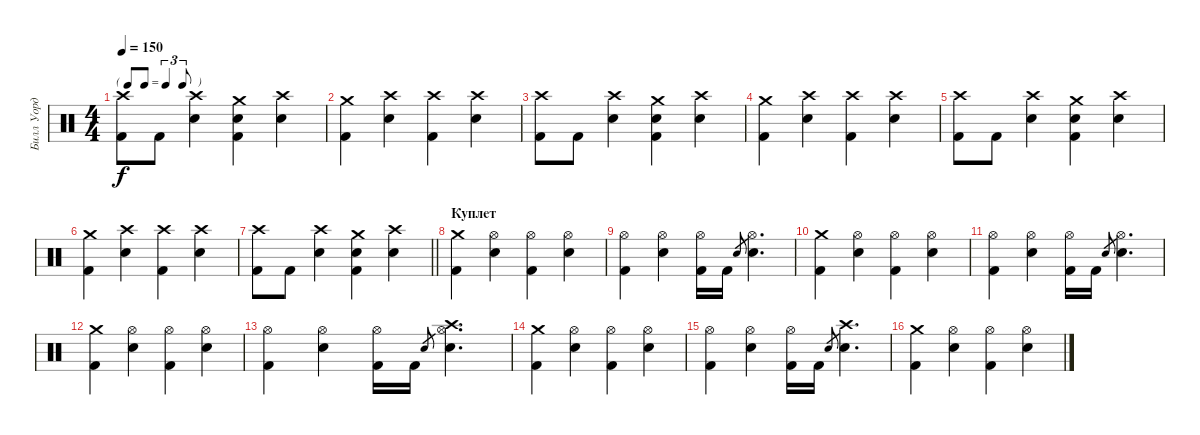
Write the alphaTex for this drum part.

\track ("Билл Уорд" "Билл Уорд") {instrument percussion}
\staff {score}
\articulation defaults
\ts (4 4)
\tf triplet8th
\tempo 150
\clef neutral
\ks c
("Kick (hit) 2" "Crash high (hit)").8{dy f} "Kick (hit) 2".8 ("Snare (hit) 2" "Crash high (hit)").4 ("Snare (hit) 2" "Kick (hit) 2" "Crash medium (hit)").4 ("Snare (hit) 2" "Crash high (hit)").4 |
("Kick (hit) 2" "Crash medium (hit)").4 ("Snare (hit) 2" "Crash high (hit)").4 ("Kick (hit) 2" "Crash high (hit)").4 ("Snare (hit) 2" "Crash high (hit)").4 |
("Kick (hit) 2" "Crash high (hit)").8 "Kick (hit) 2".8 ("Snare (hit) 2" "Crash high (hit)").4 ("Snare (hit) 2" "Kick (hit) 2" "Crash medium (hit)").4 ("Snare (hit) 2" "Crash high (hit)").4 |
("Kick (hit) 2" "Crash medium (hit)").4 ("Snare (hit) 2" "Crash high (hit)").4 ("Kick (hit) 2" "Crash high (hit)").4 ("Snare (hit) 2" "Crash high (hit)").4 |
("Kick (hit) 2" "Crash high (hit)").8 "Kick (hit) 2".8 ("Snare (hit) 2" "Crash high (hit)").4 ("Snare (hit) 2" "Kick (hit) 2" "Crash medium (hit)").4 ("Snare (hit) 2" "Crash high (hit)").4 |
("Kick (hit) 2" "Crash medium (hit)").4 ("Snare (hit) 2" "Crash high (hit)").4 ("Kick (hit) 2" "Crash high (hit)").4 ("Snare (hit) 2" "Crash high (hit)").4 |
\barLineRight lightlight
("Kick (hit) 2" "Crash high (hit)").8 "Kick (hit) 2".8 ("Snare (hit) 2" "Crash high (hit)").4 ("Snare (hit) 2" "Kick (hit) 2" "Crash medium (hit)").4 ("Snare (hit) 2" "Crash high (hit)").4 |
\section ("" "Куплет")
("Crash medium (hit)" "Kick (hit) 2").4 ("Hi-Hat (open)" "Snare (hit) 2").4 ("Hi-Hat (open)" "Kick (hit) 2").4 ("Hi-Hat (open)" "Snare (hit) 2").4 |
("Kick (hit) 2" "Hi-Hat (open)").4 ("Snare (hit) 2" "Hi-Hat (open)").4 ("Kick (hit) 2" "Hi-Hat (open)").16 "Kick (hit) 2".16 "Snare (hit) 2".8{gr} ("Snare (hit) 2" "Hi-Hat (open)").4{d} |
("Crash medium (hit)" "Kick (hit) 2").4 ("Hi-Hat (open)" "Snare (hit) 2").4 ("Hi-Hat (open)" "Kick (hit) 2").4 ("Hi-Hat (open)" "Snare (hit) 2").4 |
("Kick (hit) 2" "Hi-Hat (open)").4 ("Snare (hit) 2" "Hi-Hat (open)").4 ("Kick (hit) 2" "Hi-Hat (open)").16 "Kick (hit) 2".16 "Snare (hit) 2".8{gr} ("Snare (hit) 2" "Hi-Hat (open)").4{d} |
("Crash medium (hit)" "Kick (hit) 2").4 ("Hi-Hat (open)" "Snare (hit) 2").4 ("Hi-Hat (open)" "Kick (hit) 2").4 ("Hi-Hat (open)" "Snare (hit) 2").4 |
("Kick (hit) 2" "Hi-Hat (open)").4 ("Snare (hit) 2" "Hi-Hat (open)").4 ("Kick (hit) 2" "Hi-Hat (open)").16 "Kick (hit) 2".16 "Snare (hit) 2".8{gr} ("Snare (hit) 2" "Hi-Hat (open)" "Crash high (hit)").4{d} |
("Crash medium (hit)" "Kick (hit) 2").4 ("Hi-Hat (open)" "Snare (hit) 2").4 ("Hi-Hat (open)" "Kick (hit) 2").4 ("Hi-Hat (open)" "Snare (hit) 2").4 |
("Kick (hit) 2" "Hi-Hat (open)").4 ("Snare (hit) 2" "Hi-Hat (open)").4 ("Kick (hit) 2" "Hi-Hat (open)").16 "Kick (hit) 2".16 "Snare (hit) 2".8{gr} ("Snare (hit) 2" "Crash high (hit)").4{d} |
("Crash medium (hit)" "Kick (hit) 2").4 ("Hi-Hat (open)" "Snare (hit) 2").4 ("Hi-Hat (open)" "Kick (hit) 2").4 ("Hi-Hat (open)" "Snare (hit) 2").4
